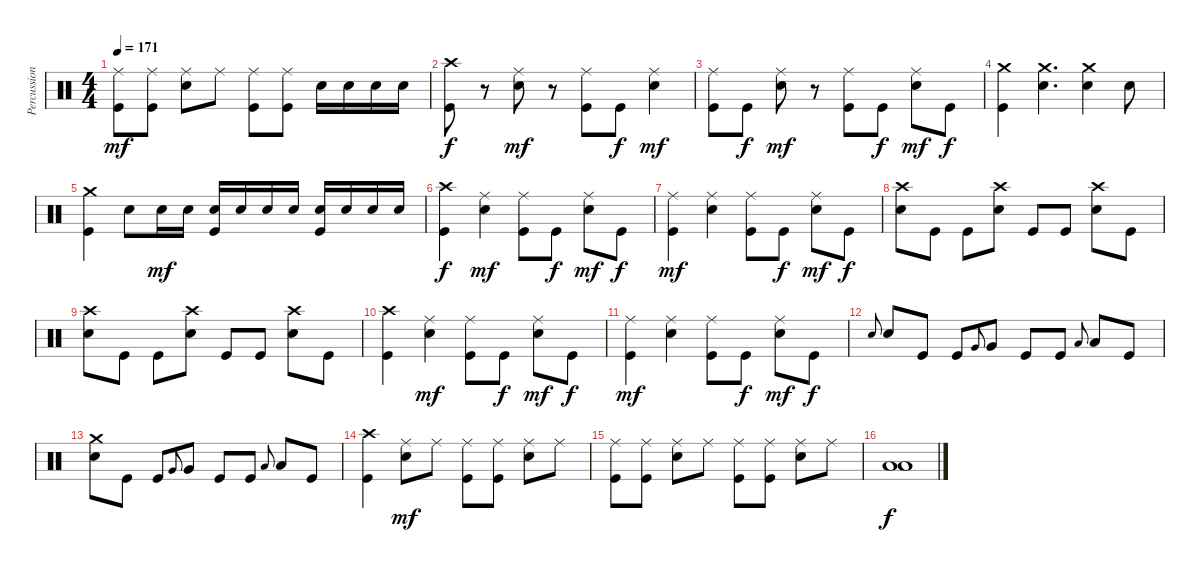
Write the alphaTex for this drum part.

\track ("Percussion" "Percussion") {instrument percussion}
\staff {score}
\articulation defaults
\ts (4 4)
\tempo 171
\clef neutral
\ks c
("Ride (middle)" "Kick (hit)").8{dy mf} ("Ride (middle)" "Kick (hit)").8 ("Ride (middle)" "Electric Snare (hit)").8 "Ride (middle)".8 ("Ride (middle)" "Kick (hit)").8 ("Ride (middle)" "Kick (hit)").8 "Electric Snare (hit)".16 "Electric Snare (hit)".16 "Electric Snare (hit)".16 "Electric Snare (hit)".16 |
("Crash high (hit)" "Kick (hit)").8{dy f} r.8 ("Ride (middle)" "Electric Snare (hit)").8{dy mf} r.8 ("Ride (middle)" "Kick (hit)").8 "Kick (hit)".8{dy f} ("Ride (middle)" "Electric Snare (hit)").4{dy mf} |
("Ride (middle)" "Kick (hit)").8 "Kick (hit)".8{dy f} ("Ride (middle)" "Electric Snare (hit)").8{dy mf} r.8 ("Ride (middle)" "Kick (hit)").8 "Kick (hit)".8{dy f} ("Ride (middle)" "Electric Snare (hit)").8{dy mf} "Kick (hit)".8{dy f} |
("Crash medium (hit)" "Kick (hit)").4 ("Crash medium (hit)" "Electric Snare (hit)").4{d} ("Crash medium (hit)" "Electric Snare (hit)").4 "Electric Snare (hit)".8 |
("Crash medium (hit)" "Kick (hit)").4 "Electric Snare (hit)".8 "Electric Snare (hit)".16{dy mf} "Electric Snare (hit)".16 ("Electric Snare (hit)" "Kick (hit)").16 "Electric Snare (hit)".16 "Electric Snare (hit)".16 "Electric Snare (hit)".16 ("Electric Snare (hit)" "Kick (hit)").16 "Electric Snare (hit)".16 "Electric Snare (hit)".16 "Electric Snare (hit)".16 |
("Crash high (hit)" "Kick (hit)").4{dy f} ("Ride (middle)" "Electric Snare (hit)").4{dy mf} ("Ride (middle)" "Kick (hit)").8 "Kick (hit)".8{dy f} ("Ride (middle)" "Electric Snare (hit)").8{dy mf} "Kick (hit)".8{dy f} |
("Ride (middle)" "Kick (hit)").4{dy mf} ("Ride (middle)" "Electric Snare (hit)").4 ("Ride (middle)" "Kick (hit)").8 "Kick (hit)".8{dy f} ("Ride (middle)" "Electric Snare (hit)").8{dy mf} "Kick (hit)".8{dy f} |
("Crash high (hit)" "Electric Snare (hit)").8 "Kick (hit)".8 "Kick (hit)".8 ("Crash high (hit)" "Electric Snare (hit)").8 "Kick (hit)".8 "Kick (hit)".8 ("Crash high (hit)" "Electric Snare (hit)").8 "Kick (hit)".8 |
("Crash high (hit)" "Electric Snare (hit)").8 "Kick (hit)".8 "Kick (hit)".8 ("Crash high (hit)" "Electric Snare (hit)").8 "Kick (hit)".8 "Kick (hit)".8 ("Crash high (hit)" "Electric Snare (hit)").8 "Kick (hit)".8 |
("Crash high (hit)" "Kick (hit)").4 ("Ride (middle)" "Electric Snare (hit)").4{dy mf} ("Ride (middle)" "Kick (hit)").8 "Kick (hit)".8{dy f} ("Ride (middle)" "Electric Snare (hit)").8{dy mf} "Kick (hit)".8{dy f} |
("Ride (middle)" "Kick (hit)").4{dy mf} ("Ride (middle)" "Electric Snare (hit)").4 ("Ride (middle)" "Kick (hit)").8 "Kick (hit)".8{dy f} ("Ride (middle)" "Electric Snare (hit)").8{dy mf} "Kick (hit)".8{dy f} |
"Electric Snare (hit)".8{gr onbeat} "Electric Snare (hit)".8 "Kick (hit)".8 "Kick (hit)".8 "Very Low Tom (hit)".8{gr onbeat} "Very Low Tom (hit)".8 "Kick (hit)".8 "Kick (hit)".8 "Low Floor Tom (hit)".8{gr onbeat} "Low Floor Tom (hit)".8 "Kick (hit)".8 |
("Crash medium (hit)" "Electric Snare (hit)").8 "Kick (hit)".8 "Kick (hit)".8 "Very Low Tom (hit)".8{gr onbeat} "Very Low Tom (hit)".8 "Kick (hit)".8 "Kick (hit)".8 "Low Floor Tom (hit)".8{gr onbeat} "Low Floor Tom (hit)".8 "Kick (hit)".8 |
("Crash high (hit)" "Kick (hit)").4 ("Ride (middle)" "Electric Snare (hit)").8{dy mf} "Ride (middle)".8 ("Ride (middle)" "Kick (hit)").8 ("Ride (middle)" "Kick (hit)").8 ("Ride (middle)" "Electric Snare (hit)").8 "Ride (middle)".8 |
("Ride (middle)" "Kick (hit)").8 ("Ride (middle)" "Kick (hit)").8 ("Ride (middle)" "Electric Snare (hit)").8 "Ride (middle)".8 ("Ride (middle)" "Kick (hit)").8 ("Ride (middle)" "Kick (hit)").8 ("Ride (middle)" "Electric Snare (hit)").8 "Ride (middle)".8 |
("Low Floor Tom (hit)" "Low Floor Tom (hit)").1{dy f}
